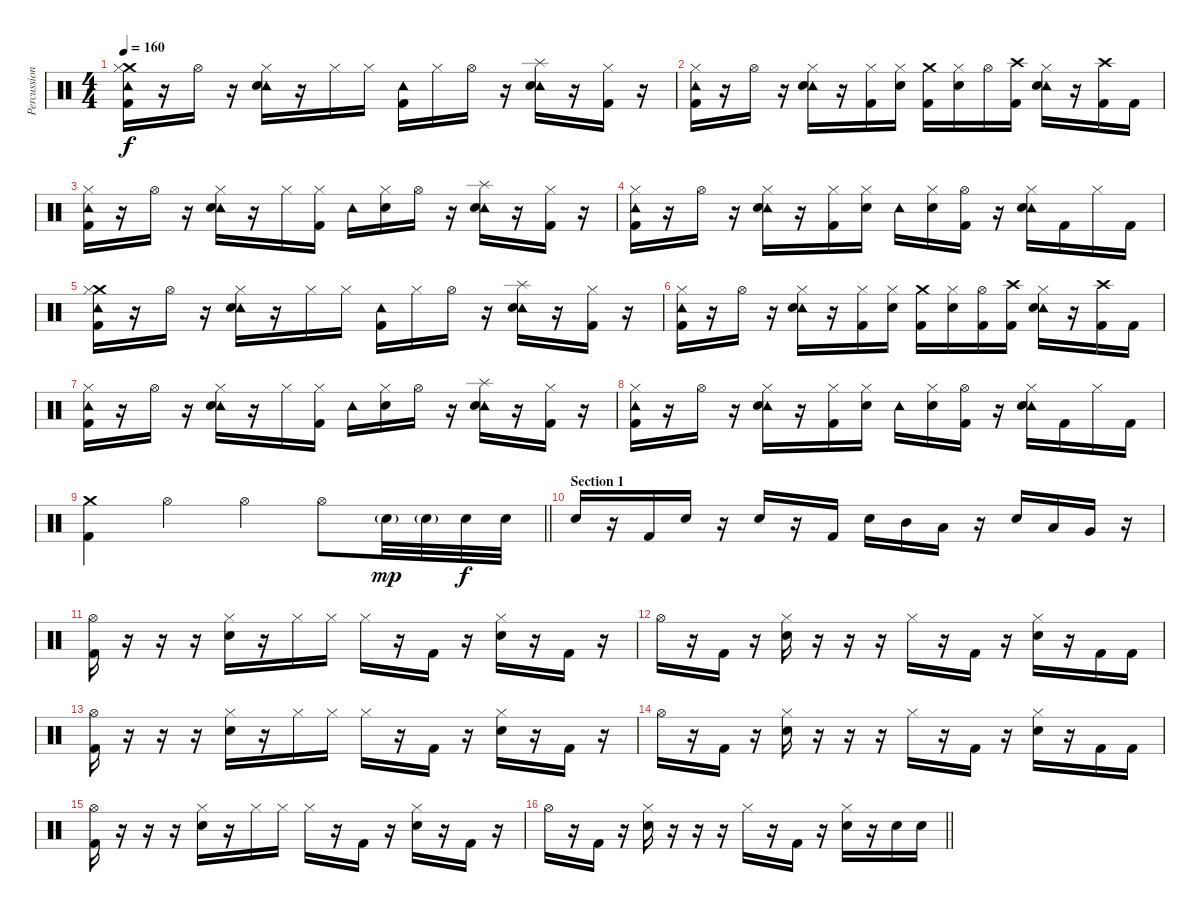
\track ("Percussion" "Percussion") {instrument percussion}
\staff {score}
\articulation defaults
\ts (4 4)
\tempo 160
\clef neutral
\ks c
("Crash medium (hit)" "Tambourine (hit)" "Hi-Hat (closed)" "Kick (hit) 2").16{dy f} r.16 "Hi-Hat (open)".16 r.16 ("Tambourine (hit)" "Hi-Hat (closed)" "Electric Snare (hit)").16 r.16 "Hi-Hat (closed)".16 "Hi-Hat (closed)".16 ("Tambourine (hit)" "Kick (hit) 2").16 "Hi-Hat (closed)".16 "Hi-Hat (open)".16 r.16 ("Tambourine (hit)" "Electric Snare (hit)" "Splash (hit)").16 r.16 ("Hi-Hat (closed)" "Kick (hit) 2").16 r.16 |
("Tambourine (hit)" "Hi-Hat (closed)" "Kick (hit) 2").16 r.16 "Hi-Hat (open)".16 r.16 ("Tambourine (hit)" "Hi-Hat (closed)" "Electric Snare (hit)").16 r.16 ("Hi-Hat (closed)" "Kick (hit) 2").16 ("Electric Snare (hit)" "Hi-Hat (closed)").16 ("Crash medium (hit)" "Kick (hit) 2").16 ("Hi-Hat (closed)" "Electric Snare (hit)").16 "Hi-Hat (open)".16 ("Crash high (hit)" "Kick (hit) 2").16 ("Tambourine (hit)" "Hi-Hat (closed)" "Electric Snare (hit)").16 r.16 ("Crash high (hit)" "Kick (hit) 2").16 "Kick (hit) 2".16 |
("Tambourine (hit)" "Hi-Hat (closed)" "Kick (hit) 2").16 r.16 "Hi-Hat (open)".16 r.16 ("Tambourine (hit)" "Hi-Hat (closed)" "Electric Snare (hit)").16 r.16 "Hi-Hat (closed)".16 ("Hi-Hat (closed)" "Kick (hit) 2").16 "Tambourine (hit)".16 ("Hi-Hat (closed)" "Electric Snare (hit)").16 "Hi-Hat (open)".16 r.16 ("Tambourine (hit)" "Electric Snare (hit)" "Splash (hit)").16 r.16 ("Hi-Hat (closed)" "Kick (hit) 2").16 r.16 |
("Tambourine (hit)" "Hi-Hat (closed)" "Kick (hit) 2").16 r.16 "Hi-Hat (open)".16 r.16 ("Tambourine (hit)" "Hi-Hat (closed)" "Electric Snare (hit)").16 r.16 ("Hi-Hat (closed)" "Kick (hit) 2").16 ("Electric Snare (hit)" "Hi-Hat (closed)").16 "Tambourine (hit)".16 ("Hi-Hat (closed)" "Electric Snare (hit)").16 ("Hi-Hat (open)" "Kick (hit) 2").16 r.16 ("Tambourine (hit)" "Hi-Hat (closed)" "Electric Snare (hit)").16 "Kick (hit) 2".16 "Hi-Hat (closed)".16 "Kick (hit) 2".16 |
("Crash medium (hit)" "Tambourine (hit)" "Hi-Hat (closed)" "Kick (hit) 2").16 r.16 "Hi-Hat (open)".16 r.16 ("Tambourine (hit)" "Hi-Hat (closed)" "Electric Snare (hit)").16 r.16 "Hi-Hat (closed)".16 "Hi-Hat (closed)".16 ("Tambourine (hit)" "Kick (hit) 2").16 "Hi-Hat (closed)".16 "Hi-Hat (open)".16 r.16 ("Tambourine (hit)" "Electric Snare (hit)" "Splash (hit)").16 r.16 ("Hi-Hat (closed)" "Kick (hit) 2").16 r.16 |
("Tambourine (hit)" "Hi-Hat (closed)" "Kick (hit) 2").16 r.16 "Hi-Hat (open)".16 r.16 ("Tambourine (hit)" "Hi-Hat (closed)" "Electric Snare (hit)").16 r.16 ("Hi-Hat (closed)" "Kick (hit) 2").16 ("Electric Snare (hit)" "Hi-Hat (closed)").16 ("Crash medium (hit)" "Kick (hit) 2").16 ("Hi-Hat (closed)" "Electric Snare (hit)").16 ("Hi-Hat (open)" "Kick (hit) 2").16 ("Crash high (hit)" "Kick (hit) 2").16 ("Tambourine (hit)" "Hi-Hat (closed)" "Electric Snare (hit)").16 r.16 ("Crash high (hit)" "Kick (hit) 2").16 "Kick (hit) 2".16 |
("Tambourine (hit)" "Hi-Hat (closed)" "Kick (hit) 2").16 r.16 "Hi-Hat (open)".16 r.16 ("Tambourine (hit)" "Hi-Hat (closed)" "Electric Snare (hit)").16 r.16 "Hi-Hat (closed)".16 ("Hi-Hat (closed)" "Kick (hit) 2").16 "Tambourine (hit)".16 ("Hi-Hat (closed)" "Electric Snare (hit)").16 "Hi-Hat (open)".16 r.16 ("Tambourine (hit)" "Electric Snare (hit)" "Splash (hit)").16 r.16 ("Hi-Hat (closed)" "Kick (hit) 2").16 r.16 |
("Tambourine (hit)" "Hi-Hat (closed)" "Kick (hit) 2").16 r.16 "Hi-Hat (open)".16 r.16 ("Tambourine (hit)" "Hi-Hat (closed)" "Electric Snare (hit)").16 r.16 ("Hi-Hat (closed)" "Kick (hit) 2").16 ("Electric Snare (hit)" "Hi-Hat (closed)").16 "Tambourine (hit)".16 ("Hi-Hat (closed)" "Electric Snare (hit)").16 ("Hi-Hat (open)" "Kick (hit) 2").16 r.16 ("Tambourine (hit)" "Hi-Hat (closed)" "Electric Snare (hit)").16 "Kick (hit) 2".16 "Hi-Hat (closed)".16 "Kick (hit) 2".16 |
\barLineRight lightlight
("Crash medium (hit)" "Kick (hit) 2").4 "Hi-Hat (open)".4 "Hi-Hat (open)".4 "Hi-Hat (open)".8 "Electric Snare (hit)"{g}.32{dy mp} "Electric Snare (hit)"{g}.32 "Electric Snare (hit)".32{dy f} "Electric Snare (hit)".32 |
\section ("" "Section 1")
"Electric Snare (hit)".16 r.16 "Kick (hit) 2".16 "Electric Snare (hit)".16 r.16 "Electric Snare (hit)".16 r.16 "Kick (hit) 2".16 "Electric Snare (hit)".16 "Mid Tom (hit)".16 "Low Tom (hit)".16 r.16 "Electric Snare (hit)".16 "Low Tom (hit)".16 "Very Low Tom (hit)".16 r.16 |
("Hi-Hat (open)" "Kick (hit) 2").16 r.16 r.16 r.16 ("Hi-Hat (closed)" "Electric Snare (hit)").16 r.16 "Hi-Hat (closed)".16 "Hi-Hat (closed)".16 "Hi-Hat (closed)".16 r.16 "Kick (hit) 2".16 r.16 ("Hi-Hat (closed)" "Electric Snare (hit)").16 r.16 "Kick (hit) 2".16 r.16 |
"Hi-Hat (open)".16 r.16 "Kick (hit) 2".16 r.16 ("Hi-Hat (closed)" "Electric Snare (hit)").16 r.16 r.16 r.16 "Hi-Hat (closed)".16 r.16 "Kick (hit) 2".16 r.16 ("Hi-Hat (closed)" "Electric Snare (hit)").16 r.16 "Kick (hit) 2".16 "Kick (hit) 2".16 |
("Hi-Hat (open)" "Kick (hit) 2").16 r.16 r.16 r.16 ("Hi-Hat (closed)" "Electric Snare (hit)").16 r.16 "Hi-Hat (closed)".16 "Hi-Hat (closed)".16 "Hi-Hat (closed)".16 r.16 "Kick (hit) 2".16 r.16 ("Hi-Hat (closed)" "Electric Snare (hit)").16 r.16 "Kick (hit) 2".16 r.16 |
"Hi-Hat (open)".16 r.16 "Kick (hit) 2".16 r.16 ("Hi-Hat (closed)" "Electric Snare (hit)").16 r.16 r.16 r.16 "Hi-Hat (closed)".16 r.16 "Kick (hit) 2".16 r.16 ("Hi-Hat (closed)" "Electric Snare (hit)").16 r.16 "Kick (hit) 2".16 "Kick (hit) 2".16 |
("Hi-Hat (open)" "Kick (hit) 2").16 r.16 r.16 r.16 ("Hi-Hat (closed)" "Electric Snare (hit)").16 r.16 "Hi-Hat (closed)".16 "Hi-Hat (closed)".16 "Hi-Hat (closed)".16 r.16 "Kick (hit) 2".16 r.16 ("Hi-Hat (closed)" "Electric Snare (hit)").16 r.16 "Kick (hit) 2".16 r.16 |
\barLineRight lightlight "Hi-Hat (open)".16
r.16 "Kick (hit) 2".16 r.16 ("Hi-Hat (closed)" "Electric Snare (hit)").16 r.16 r.16 r.16 "Hi-Hat (closed)".16 r.16 "Kick (hit) 2".16 r.16 ("Hi-Hat (closed)" "Electric Snare (hit)").16 r.16 "Electric Snare (hit)".16 "Electric Snare (hit)".16
